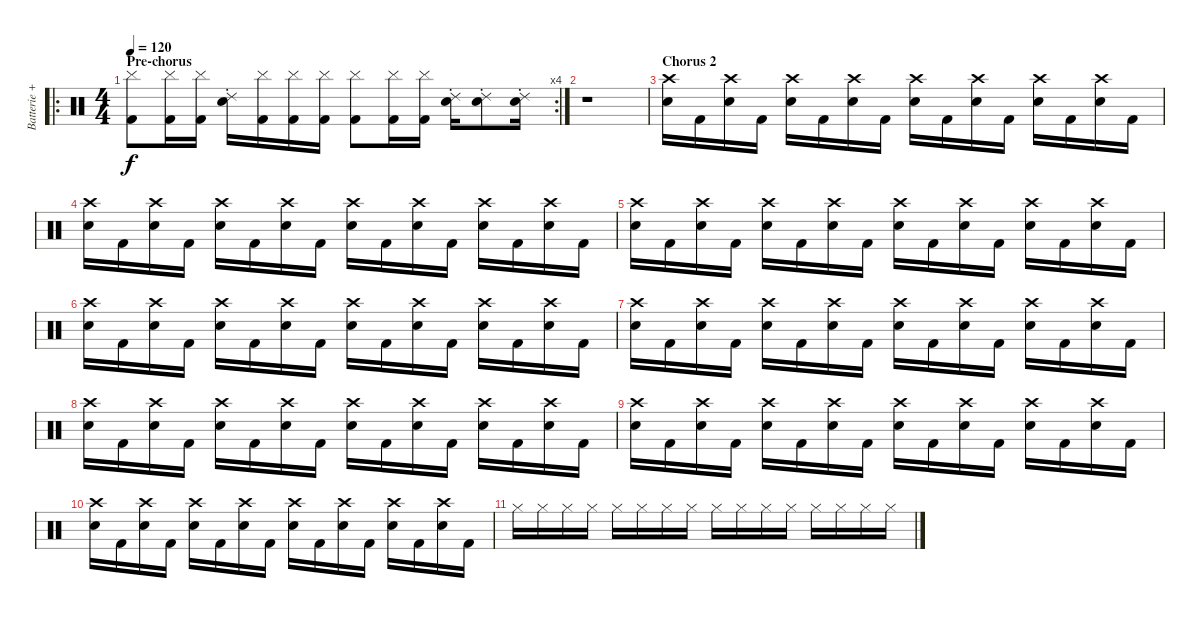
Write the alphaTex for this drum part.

\track ("Batterie + Platines" "Batterie +") {instrument percussion}
\staff {score}
\articulation defaults
\ro
\rc 4
\ts (4 4)
\section ("" "Pre-chorus")
\tempo 120
\clef neutral
\ks c
("Cymbal (hit)" "Kick (hit) 2").8{dy f} ("Cymbal (hit)" "Kick (hit) 2").16 ("Cymbal (hit)" "Kick (hit) 2").16 ("Ride (choke) 2" "Snare (hit) 2").16 ("Cymbal (hit)" "Kick (hit) 2").16 ("Cymbal (hit)" "Kick (hit) 2").16 ("Cymbal (hit)" "Kick (hit) 2").16 ("Cymbal (hit)" "Kick (hit) 2").8 ("Cymbal (hit)" "Kick (hit) 2").16 ("Cymbal (hit)" "Kick (hit) 2").16 ("Ride (choke) 2" "Snare (hit) 2").16 ("Ride (choke) 2" "Snare (hit) 2").8 ("Ride (choke) 2" "Snare (hit) 2").16 |
r.1 |
\section ("" "Chorus 2")
("Crash high (hit)" "Snare (hit) 2").16 "Kick (hit) 2".16 ("Crash high (hit)" "Snare (hit) 2").16 "Kick (hit) 2".16 ("Crash high (hit)" "Snare (hit) 2").16 "Kick (hit) 2".16 ("Crash high (hit)" "Snare (hit) 2").16 "Kick (hit) 2".16 ("Crash high (hit)" "Snare (hit) 2").16 "Kick (hit) 2".16 ("Crash high (hit)" "Snare (hit) 2").16 "Kick (hit) 2".16 ("Crash high (hit)" "Snare (hit) 2").16 "Kick (hit) 2".16 ("Crash high (hit)" "Snare (hit) 2").16 "Kick (hit) 2".16 |
("Crash high (hit)" "Snare (hit) 2").16 "Kick (hit) 2".16 ("Crash high (hit)" "Snare (hit) 2").16 "Kick (hit) 2".16 ("Crash high (hit)" "Snare (hit) 2").16 "Kick (hit) 2".16 ("Crash high (hit)" "Snare (hit) 2").16 "Kick (hit) 2".16 ("Crash high (hit)" "Snare (hit) 2").16 "Kick (hit) 2".16 ("Crash high (hit)" "Snare (hit) 2").16 "Kick (hit) 2".16 ("Crash high (hit)" "Snare (hit) 2").16 "Kick (hit) 2".16 ("Crash high (hit)" "Snare (hit) 2").16 "Kick (hit) 2".16 |
("Crash high (hit)" "Snare (hit) 2").16 "Kick (hit) 2".16 ("Crash high (hit)" "Snare (hit) 2").16 "Kick (hit) 2".16 ("Crash high (hit)" "Snare (hit) 2").16 "Kick (hit) 2".16 ("Crash high (hit)" "Snare (hit) 2").16 "Kick (hit) 2".16 ("Crash high (hit)" "Snare (hit) 2").16 "Kick (hit) 2".16 ("Crash high (hit)" "Snare (hit) 2").16 "Kick (hit) 2".16 ("Crash high (hit)" "Snare (hit) 2").16 "Kick (hit) 2".16 ("Crash high (hit)" "Snare (hit) 2").16 "Kick (hit) 2".16 |
("Crash high (hit)" "Snare (hit) 2").16 "Kick (hit) 2".16 ("Crash high (hit)" "Snare (hit) 2").16 "Kick (hit) 2".16 ("Crash high (hit)" "Snare (hit) 2").16 "Kick (hit) 2".16 ("Crash high (hit)" "Snare (hit) 2").16 "Kick (hit) 2".16 ("Crash high (hit)" "Snare (hit) 2").16 "Kick (hit) 2".16 ("Crash high (hit)" "Snare (hit) 2").16 "Kick (hit) 2".16 ("Crash high (hit)" "Snare (hit) 2").16 "Kick (hit) 2".16 ("Crash high (hit)" "Snare (hit) 2").16 "Kick (hit) 2".16 |
("Crash high (hit)" "Snare (hit) 2").16 "Kick (hit) 2".16 ("Crash high (hit)" "Snare (hit) 2").16 "Kick (hit) 2".16 ("Crash high (hit)" "Snare (hit) 2").16 "Kick (hit) 2".16 ("Crash high (hit)" "Snare (hit) 2").16 "Kick (hit) 2".16 ("Crash high (hit)" "Snare (hit) 2").16 "Kick (hit) 2".16 ("Crash high (hit)" "Snare (hit) 2").16 "Kick (hit) 2".16 ("Crash high (hit)" "Snare (hit) 2").16 "Kick (hit) 2".16 ("Crash high (hit)" "Snare (hit) 2").16 "Kick (hit) 2".16 |
("Crash high (hit)" "Snare (hit) 2").16 "Kick (hit) 2".16 ("Crash high (hit)" "Snare (hit) 2").16 "Kick (hit) 2".16 ("Crash high (hit)" "Snare (hit) 2").16 "Kick (hit) 2".16 ("Crash high (hit)" "Snare (hit) 2").16 "Kick (hit) 2".16 ("Crash high (hit)" "Snare (hit) 2").16 "Kick (hit) 2".16 ("Crash high (hit)" "Snare (hit) 2").16 "Kick (hit) 2".16 ("Crash high (hit)" "Snare (hit) 2").16 "Kick (hit) 2".16 ("Crash high (hit)" "Snare (hit) 2").16 "Kick (hit) 2".16 |
("Crash high (hit)" "Snare (hit) 2").16 "Kick (hit) 2".16 ("Crash high (hit)" "Snare (hit) 2").16 "Kick (hit) 2".16 ("Crash high (hit)" "Snare (hit) 2").16 "Kick (hit) 2".16 ("Crash high (hit)" "Snare (hit) 2").16 "Kick (hit) 2".16 ("Crash high (hit)" "Snare (hit) 2").16 "Kick (hit) 2".16 ("Crash high (hit)" "Snare (hit) 2").16 "Kick (hit) 2".16 ("Crash high (hit)" "Snare (hit) 2").16 "Kick (hit) 2".16 ("Crash high (hit)" "Snare (hit) 2").16 "Kick (hit) 2".16 |
("Crash high (hit)" "Snare (hit) 2").16 "Kick (hit) 2".16 ("Crash high (hit)" "Snare (hit) 2").16 "Kick (hit) 2".16 ("Crash high (hit)" "Snare (hit) 2").16 "Kick (hit) 2".16 ("Crash high (hit)" "Snare (hit) 2").16 "Kick (hit) 2".16 ("Crash high (hit)" "Snare (hit) 2").16 "Kick (hit) 2".16 ("Crash high (hit)" "Snare (hit) 2").16 "Kick (hit) 2".16 ("Crash high (hit)" "Snare (hit) 2").16 "Kick (hit) 2".16 ("Crash high (hit)" "Snare (hit) 2").16 "Kick (hit) 2".16 |
"Hi-Hat (closed)".16 "Hi-Hat (closed)".16 "Hi-Hat (closed)".16 "Hi-Hat (closed)".16 "Hi-Hat (closed)".16 "Hi-Hat (closed)".16 "Hi-Hat (closed)".16 "Hi-Hat (closed)".16 "Hi-Hat (closed)".16 "Hi-Hat (closed)".16 "Hi-Hat (closed)".16 "Hi-Hat (closed)".16 "Hi-Hat (closed)".16 "Hi-Hat (closed)".16 "Hi-Hat (closed)".16 "Hi-Hat (closed)".16
